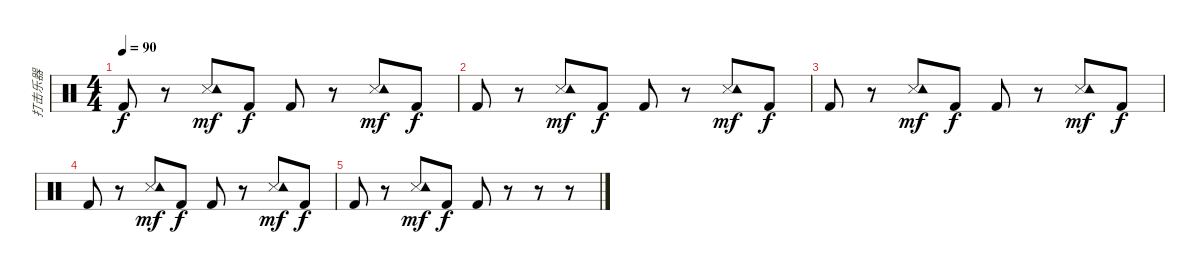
\track ("打击乐器" "打击乐器") {instrument percussion}
\staff {score}
\articulation defaults
\ts (4 4)
\tempo 90
\clef neutral
\ks c "Kick (hit) 2".8{dy f}
r.8 ("Snare (side stick) 3" "Tambourine (hit)").8{dy mf} "Kick (hit) 2".8{dy f} "Kick (hit) 2".8 r.8 ("Snare (side stick) 3" "Tambourine (hit)").8{dy mf} "Kick (hit) 2".8{dy f} |
"Kick (hit) 2".8 r.8 ("Snare (side stick) 3" "Tambourine (hit)").8{dy mf} "Kick (hit) 2".8{dy f} "Kick (hit) 2".8 r.8 ("Snare (side stick) 3" "Tambourine (hit)").8{dy mf} "Kick (hit) 2".8{dy f} |
"Kick (hit) 2".8 r.8 ("Snare (side stick) 3" "Tambourine (hit)").8{dy mf} "Kick (hit) 2".8{dy f} "Kick (hit) 2".8 r.8 ("Snare (side stick) 3" "Tambourine (hit)").8{dy mf} "Kick (hit) 2".8{dy f} |
"Kick (hit) 2".8 r.8 ("Snare (side stick) 3" "Tambourine (hit)").8{dy mf} "Kick (hit) 2".8{dy f} "Kick (hit) 2".8 r.8 ("Snare (side stick) 3" "Tambourine (hit)").8{dy mf} "Kick (hit) 2".8{dy f} |
"Kick (hit) 2".8 r.8 ("Snare (side stick) 3" "Tambourine (hit)").8{dy mf} "Kick (hit) 2".8{dy f} "Kick (hit) 2".8 r.8 r.8 r.8
